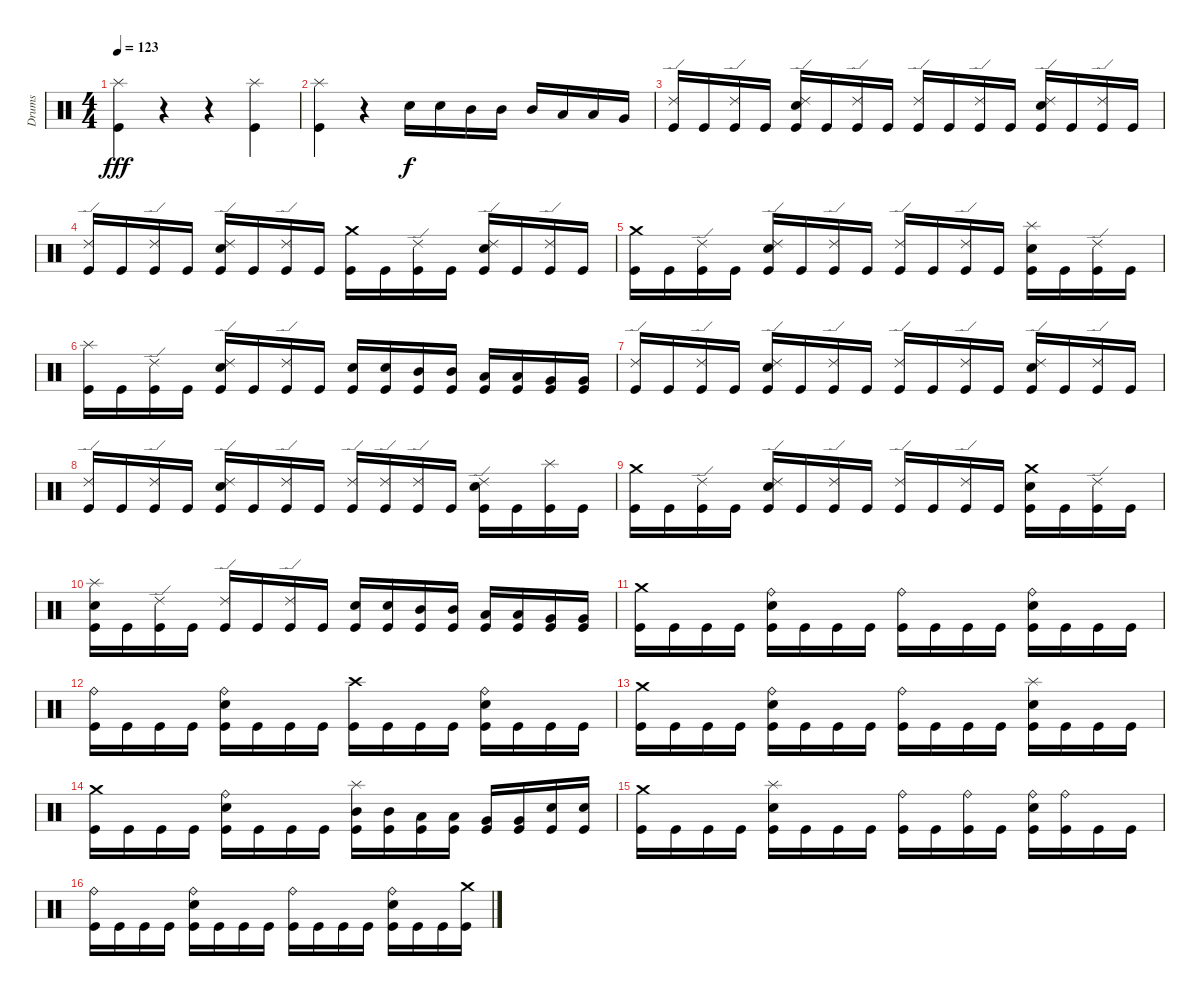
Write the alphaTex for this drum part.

\track ("Drums" "Drums") {instrument percussion}
\staff {score}
\articulation defaults
\ts (4 4)
\tempo 123
\clef neutral
\ks c
("Splash (hit)" "Kick (hit)").4{dy fff} r.4 r.4 ("Splash (hit)" "Kick (hit)").4 |
("Splash (hit)" "Kick (hit)").4 r.4 "Electric Snare (hit)".16{dy f} "Electric Snare (hit)".16 "Mid Tom (hit)".16 "Mid Tom (hit)".16 "Mid Tom (hit)".16 "Low Tom (hit)".16 "Low Tom (hit)".16 "Very Low Tom (hit)".16 |
("Ride (edge) 2" "Kick (hit)").16 "Kick (hit)".16 ("Ride (edge) 2" "Kick (hit)").16 "Kick (hit)".16 ("Ride (edge) 2" "Electric Snare (hit)" "Kick (hit)").16 "Kick (hit)".16 ("Ride (edge) 2" "Kick (hit)").16 "Kick (hit)".16 ("Ride (edge) 2" "Kick (hit)").16 "Kick (hit)".16 ("Ride (edge) 2" "Kick (hit)").16 "Kick (hit)".16 ("Ride (edge) 2" "Electric Snare (hit)" "Kick (hit)").16 "Kick (hit)".16 ("Ride (edge) 2" "Kick (hit)").16 "Kick (hit)".16 |
("Ride (edge) 2" "Kick (hit)").16 "Kick (hit)".16 ("Ride (edge) 2" "Kick (hit)").16 "Kick (hit)".16 ("Ride (edge) 2" "Electric Snare (hit)" "Kick (hit)").16 "Kick (hit)".16 ("Ride (edge) 2" "Kick (hit)").16 "Kick (hit)".16 ("Crash medium (hit)" "Kick (hit)").16 "Kick (hit)".16 ("Ride (edge) 2" "Kick (hit)").16 "Kick (hit)".16 ("Ride (edge) 2" "Electric Snare (hit)" "Kick (hit)").16 "Kick (hit)".16 ("Ride (edge) 2" "Kick (hit)").16 "Kick (hit)".16 |
("Crash medium (hit)" "Kick (hit)").16 "Kick (hit)".16 ("Ride (edge) 2" "Kick (hit)").16 "Kick (hit)".16 ("Ride (edge) 2" "Electric Snare (hit)" "Kick (hit)").16 "Kick (hit)".16 ("Ride (edge) 2" "Kick (hit)").16 "Kick (hit)".16 ("Ride (edge) 2" "Kick (hit)").16 "Kick (hit)".16 ("Ride (edge) 2" "Kick (hit)").16 "Kick (hit)".16 ("Splash (hit)" "Electric Snare (hit)" "Kick (hit)").16 "Kick (hit)".16 ("Ride (edge) 2" "Kick (hit)").16 "Kick (hit)".16 |
("Splash (hit)" "Kick (hit)").16 "Kick (hit)".16 ("Ride (edge) 2" "Kick (hit)").16 "Kick (hit)".16 ("Ride (edge) 2" "Electric Snare (hit)" "Kick (hit)").16 "Kick (hit)".16 ("Ride (edge) 2" "Kick (hit)").16 "Kick (hit)".16 ("Electric Snare (hit)" "Kick (hit)").16 ("Electric Snare (hit)" "Kick (hit)").16 ("Mid Tom (hit)" "Kick (hit)").16 ("Mid Tom (hit)" "Kick (hit)").16 ("Low Tom (hit)" "Kick (hit)").16 ("Low Tom (hit)" "Kick (hit)").16 ("Very Low Tom (hit)" "Kick (hit)").16 ("Very Low Tom (hit)" "Kick (hit)").16 |
("Ride (edge) 2" "Kick (hit)").16 "Kick (hit)".16 ("Ride (edge) 2" "Kick (hit)").16 "Kick (hit)".16 ("Ride (edge) 2" "Electric Snare (hit)" "Kick (hit)").16 "Kick (hit)".16 ("Ride (edge) 2" "Kick (hit)").16 "Kick (hit)".16 ("Ride (edge) 2" "Kick (hit)").16 "Kick (hit)".16 ("Ride (edge) 2" "Kick (hit)").16 "Kick (hit)".16 ("Ride (edge) 2" "Electric Snare (hit)" "Kick (hit)").16 "Kick (hit)".16 ("Ride (edge) 2" "Kick (hit)").16 "Kick (hit)".16 |
("Ride (edge) 2" "Kick (hit)").16 "Kick (hit)".16 ("Ride (edge) 2" "Kick (hit)").16 "Kick (hit)".16 ("Ride (edge) 2" "Electric Snare (hit)" "Kick (hit)").16 "Kick (hit)".16 ("Ride (edge) 2" "Kick (hit)").16 "Kick (hit)".16 ("Ride (edge) 2" "Kick (hit)").16 ("Ride (edge) 2" "Kick (hit)").16 ("Ride (edge) 2" "Kick (hit)").16 "Kick (hit)".16 ("Ride (edge) 2" "Electric Snare (hit)" "Kick (hit)").16 "Kick (hit)".16 ("Splash (hit)" "Kick (hit)").16 "Kick (hit)".16 |
("Crash medium (hit)" "Kick (hit)").16 "Kick (hit)".16 ("Ride (edge) 2" "Kick (hit)").16 "Kick (hit)".16 ("Ride (edge) 2" "Electric Snare (hit)" "Kick (hit)").16 "Kick (hit)".16 ("Ride (edge) 2" "Kick (hit)").16 "Kick (hit)".16 ("Ride (edge) 2" "Kick (hit)").16 "Kick (hit)".16 ("Ride (edge) 2" "Kick (hit)").16 "Kick (hit)".16 ("Crash medium (hit)" "Electric Snare (hit)" "Kick (hit)").16 "Kick (hit)".16 ("Ride (edge) 2" "Kick (hit)").16 "Kick (hit)".16 |
("Splash (hit)" "Electric Snare (hit)" "Kick (hit)").16 "Kick (hit)".16 ("Ride (edge) 2" "Kick (hit)").16 "Kick (hit)".16 ("Ride (edge) 2" "Kick (hit)").16 "Kick (hit)".16 ("Ride (edge) 2" "Kick (hit)").16 "Kick (hit)".16 ("Electric Snare (hit)" "Kick (hit)").16 ("Electric Snare (hit)" "Kick (hit)").16 ("Mid Tom (hit)" "Kick (hit)").16 ("Mid Tom (hit)" "Kick (hit)").16 ("Low Tom (hit)" "Kick (hit)").16 ("Low Tom (hit)" "Kick (hit)").16 ("Very Low Tom (hit)" "Kick (hit)").16 ("Very Low Tom (hit)" "Kick (hit)").16 |
("Crash medium (hit)" "Kick (hit)").16 "Kick (hit)".16 "Kick (hit)".16 "Kick (hit)".16 ("Ride (bell)" "Electric Snare (hit)" "Kick (hit)").16 "Kick (hit)".16 "Kick (hit)".16 "Kick (hit)".16 ("Ride (bell)" "Kick (hit)").16 "Kick (hit)".16 "Kick (hit)".16 "Kick (hit)".16 ("Ride (bell)" "Electric Snare (hit)" "Kick (hit)").16 "Kick (hit)".16 "Kick (hit)".16 "Kick (hit)".16 |
("Ride (bell)" "Kick (hit)").16 "Kick (hit)".16 "Kick (hit)".16 "Kick (hit)".16 ("Ride (bell)" "Electric Snare (hit)" "Kick (hit)").16 "Kick (hit)".16 "Kick (hit)".16 "Kick (hit)".16 ("Crash high (hit)" "Kick (hit)").16 "Kick (hit)".16 "Kick (hit)".16 "Kick (hit)".16 ("Ride (bell)" "Electric Snare (hit)" "Kick (hit)").16 "Kick (hit)".16 "Kick (hit)".16 "Kick (hit)".16 |
("Crash medium (hit)" "Kick (hit)").16 "Kick (hit)".16 "Kick (hit)".16 "Kick (hit)".16 ("Ride (bell)" "Electric Snare (hit)" "Kick (hit)").16 "Kick (hit)".16 "Kick (hit)".16 "Kick (hit)".16 ("Ride (bell)" "Kick (hit)").16 "Kick (hit)".16 "Kick (hit)".16 "Kick (hit)".16 ("Splash (hit)" "Electric Snare (hit)" "Kick (hit)").16 "Kick (hit)".16 "Kick (hit)".16 "Kick (hit)".16 |
("Crash medium (hit)" "Kick (hit)").16 "Kick (hit)".16 "Kick (hit)".16 "Kick (hit)".16 ("Ride (bell)" "Electric Snare (hit)" "Kick (hit)").16 "Kick (hit)".16 "Kick (hit)".16 "Kick (hit)".16 ("Splash (hit)" "Mid Tom (hit)" "Kick (hit)").16 ("Mid Tom (hit)" "Kick (hit)").16 ("Low Tom (hit)" "Kick (hit)").16 ("Low Tom (hit)" "Kick (hit)").16 ("Very Low Tom (hit)" "Kick (hit)").16 ("Very Low Tom (hit)" "Kick (hit)").16 ("Electric Snare (hit)" "Kick (hit)").16 ("Electric Snare (hit)" "Kick (hit)").16 |
("Crash medium (hit)" "Kick (hit)").16 "Kick (hit)".16 "Kick (hit)".16 "Kick (hit)".16 ("Splash (hit)" "Electric Snare (hit)" "Kick (hit)").16 "Kick (hit)".16 "Kick (hit)".16 "Kick (hit)".16 ("Ride (bell)" "Kick (hit)").16 "Kick (hit)".16 ("Ride (bell)" "Kick (hit)").16 "Kick (hit)".16 ("Ride (bell)" "Electric Snare (hit)" "Kick (hit)").16 ("Ride (bell)" "Kick (hit)").16 "Kick (hit)".16 "Kick (hit)".16 |
("Ride (bell)" "Kick (hit)").16 "Kick (hit)".16 "Kick (hit)".16 "Kick (hit)".16 ("Ride (bell)" "Electric Snare (hit)" "Kick (hit)").16 "Kick (hit)".16 "Kick (hit)".16 "Kick (hit)".16 ("Ride (bell)" "Kick (hit)").16 "Kick (hit)".16 "Kick (hit)".16 "Kick (hit)".16 ("Ride (bell)" "Electric Snare (hit)" "Kick (hit)").16 "Kick (hit)".16 "Kick (hit)".16 ("Crash medium (hit)" "Kick (hit)").16
